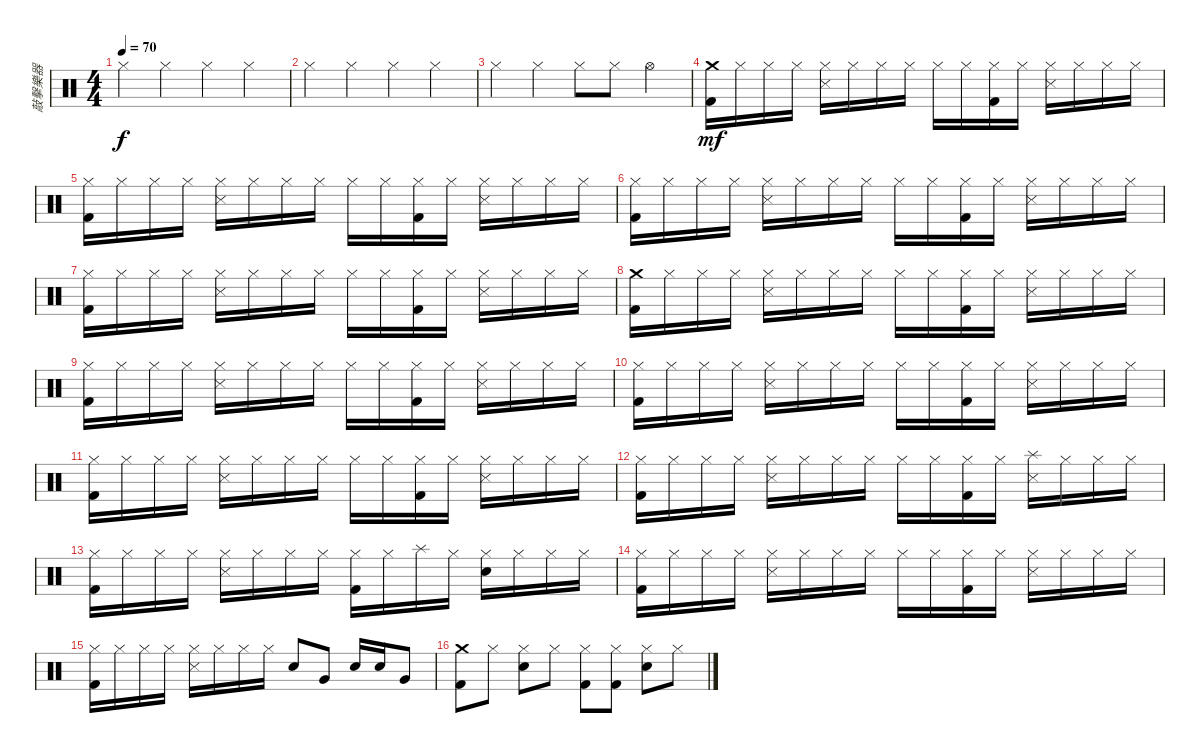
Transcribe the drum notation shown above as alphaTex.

\track ("敲擊樂器" "敲擊樂器") {instrument percussion}
\staff {score}
\articulation defaults
\ts (4 4)
\tempo 70
\clef neutral
\ks c "Hi-Hat (closed)".4{dy f} "Hi-Hat (closed)".4 "Hi-Hat (closed)".4 "Hi-Hat (closed)".4
|
"Hi-Hat (closed)".4 "Hi-Hat (closed)".4 "Hi-Hat (closed)".4 "Hi-Hat (closed)".4 |
"Hi-Hat (closed)".4 "Hi-Hat (closed)".4 "Hi-Hat (closed)".8 "Hi-Hat (closed)".8 "Hi-Hat (open)".4 |
("Crash medium (hit)" "Kick (hit) 2").16{dy mf} "Hi-Hat (closed)".16 "Hi-Hat (closed)".16 "Hi-Hat (closed)".16 ("Hi-Hat (closed)" "Snare (side stick) 3").16 "Hi-Hat (closed)".16 "Hi-Hat (closed)".16 "Hi-Hat (closed)".16 "Hi-Hat (closed)".16 "Hi-Hat (closed)".16 ("Hi-Hat (closed)" "Kick (hit) 2").16 "Hi-Hat (closed)".16 ("Hi-Hat (closed)" "Snare (side stick) 3").16 "Hi-Hat (closed)".16 "Hi-Hat (closed)".16 "Hi-Hat (closed)".16 |
("Hi-Hat (closed)" "Kick (hit) 2").16 "Hi-Hat (closed)".16 "Hi-Hat (closed)".16 "Hi-Hat (closed)".16 ("Hi-Hat (closed)" "Snare (side stick) 3").16 "Hi-Hat (closed)".16 "Hi-Hat (closed)".16 "Hi-Hat (closed)".16 "Hi-Hat (closed)".16 "Hi-Hat (closed)".16 ("Hi-Hat (closed)" "Kick (hit) 2").16 "Hi-Hat (closed)".16 ("Hi-Hat (closed)" "Snare (side stick) 3").16 "Hi-Hat (closed)".16 "Hi-Hat (closed)".16 "Hi-Hat (closed)".16 |
("Hi-Hat (closed)" "Kick (hit) 2").16 "Hi-Hat (closed)".16 "Hi-Hat (closed)".16 "Hi-Hat (closed)".16 ("Hi-Hat (closed)" "Snare (side stick) 3").16 "Hi-Hat (closed)".16 "Hi-Hat (closed)".16 "Hi-Hat (closed)".16 "Hi-Hat (closed)".16 "Hi-Hat (closed)".16 ("Hi-Hat (closed)" "Kick (hit) 2").16 "Hi-Hat (closed)".16 ("Hi-Hat (closed)" "Snare (side stick) 3").16 "Hi-Hat (closed)".16 "Hi-Hat (closed)".16 "Hi-Hat (closed)".16 |
("Hi-Hat (closed)" "Kick (hit) 2").16 "Hi-Hat (closed)".16 "Hi-Hat (closed)".16 "Hi-Hat (closed)".16 ("Hi-Hat (closed)" "Snare (side stick) 3").16 "Hi-Hat (closed)".16 "Hi-Hat (closed)".16 "Hi-Hat (closed)".16 "Hi-Hat (closed)".16 "Hi-Hat (closed)".16 ("Hi-Hat (closed)" "Kick (hit) 2").16 "Hi-Hat (closed)".16 ("Hi-Hat (closed)" "Snare (side stick) 3").16 "Hi-Hat (closed)".16 "Hi-Hat (closed)".16 "Hi-Hat (closed)".16 |
("Crash medium (hit)" "Kick (hit) 2").16 "Hi-Hat (closed)".16 "Hi-Hat (closed)".16 "Hi-Hat (closed)".16 ("Hi-Hat (closed)" "Snare (side stick) 3").16 "Hi-Hat (closed)".16 "Hi-Hat (closed)".16 "Hi-Hat (closed)".16 "Hi-Hat (closed)".16 "Hi-Hat (closed)".16 ("Hi-Hat (closed)" "Kick (hit) 2").16 "Hi-Hat (closed)".16 ("Hi-Hat (closed)" "Snare (side stick) 3").16 "Hi-Hat (closed)".16 "Hi-Hat (closed)".16 "Hi-Hat (closed)".16 |
("Hi-Hat (closed)" "Kick (hit) 2").16 "Hi-Hat (closed)".16 "Hi-Hat (closed)".16 "Hi-Hat (closed)".16 ("Hi-Hat (closed)" "Snare (side stick) 3").16 "Hi-Hat (closed)".16 "Hi-Hat (closed)".16 "Hi-Hat (closed)".16 "Hi-Hat (closed)".16 "Hi-Hat (closed)".16 ("Hi-Hat (closed)" "Kick (hit) 2").16 "Hi-Hat (closed)".16 ("Hi-Hat (closed)" "Snare (side stick) 3").16 "Hi-Hat (closed)".16 "Hi-Hat (closed)".16 "Hi-Hat (closed)".16 |
("Hi-Hat (closed)" "Kick (hit) 2").16 "Hi-Hat (closed)".16 "Hi-Hat (closed)".16 "Hi-Hat (closed)".16 ("Hi-Hat (closed)" "Snare (side stick) 3").16 "Hi-Hat (closed)".16 "Hi-Hat (closed)".16 "Hi-Hat (closed)".16 "Hi-Hat (closed)".16 "Hi-Hat (closed)".16 ("Hi-Hat (closed)" "Kick (hit) 2").16 "Hi-Hat (closed)".16 ("Hi-Hat (closed)" "Snare (side stick) 3").16 "Hi-Hat (closed)".16 "Hi-Hat (closed)".16 "Hi-Hat (closed)".16 |
("Hi-Hat (closed)" "Kick (hit) 2").16 "Hi-Hat (closed)".16 "Hi-Hat (closed)".16 "Hi-Hat (closed)".16 ("Hi-Hat (closed)" "Snare (side stick) 3").16 "Hi-Hat (closed)".16 "Hi-Hat (closed)".16 "Hi-Hat (closed)".16 "Hi-Hat (closed)".16 "Hi-Hat (closed)".16 ("Hi-Hat (closed)" "Kick (hit) 2").16 "Hi-Hat (closed)".16 ("Hi-Hat (closed)" "Snare (side stick) 3").16 "Hi-Hat (closed)".16 "Hi-Hat (closed)".16 "Hi-Hat (closed)".16 |
("Hi-Hat (closed)" "Kick (hit) 2").16 "Hi-Hat (closed)".16 "Hi-Hat (closed)".16 "Hi-Hat (closed)".16 ("Hi-Hat (closed)" "Snare (side stick) 3").16 "Hi-Hat (closed)".16 "Hi-Hat (closed)".16 "Hi-Hat (closed)".16 "Hi-Hat (closed)".16 "Hi-Hat (closed)".16 ("Hi-Hat (closed)" "Kick (hit) 2").16 "Hi-Hat (closed)".16 ("Splash (hit)" "Snare (side stick) 3").16 "Hi-Hat (closed)".16 "Hi-Hat (closed)".16 "Hi-Hat (closed)".16 |
("Hi-Hat (closed)" "Kick (hit) 2").16 "Hi-Hat (closed)".16 "Hi-Hat (closed)".16 "Hi-Hat (closed)".16 ("Hi-Hat (closed)" "Snare (side stick) 3").16 "Hi-Hat (closed)".16 "Hi-Hat (closed)".16 "Hi-Hat (closed)".16 ("Hi-Hat (closed)" "Kick (hit) 2").16 "Hi-Hat (closed)".16 "Splash (hit)".16 "Hi-Hat (closed)".16 ("Hi-Hat (closed)" "Snare (hit) 2").16 "Hi-Hat (closed)".16 "Hi-Hat (closed)".16 "Hi-Hat (closed)".16 |
("Hi-Hat (closed)" "Kick (hit) 2").16 "Hi-Hat (closed)".16 "Hi-Hat (closed)".16 "Hi-Hat (closed)".16 ("Hi-Hat (closed)" "Snare (side stick) 3").16 "Hi-Hat (closed)".16 "Hi-Hat (closed)".16 "Hi-Hat (closed)".16 "Hi-Hat (closed)".16 "Hi-Hat (closed)".16 ("Hi-Hat (closed)" "Kick (hit) 2").16 "Hi-Hat (closed)".16 ("Hi-Hat (closed)" "Snare (side stick) 3").16 "Hi-Hat (closed)".16 "Hi-Hat (closed)".16 "Hi-Hat (closed)".16 |
("Hi-Hat (closed)" "Kick (hit) 2").16 "Hi-Hat (closed)".16 "Hi-Hat (closed)".16 "Hi-Hat (closed)".16 ("Hi-Hat (closed)" "Snare (side stick) 3").16 "Hi-Hat (closed)".16 "Hi-Hat (closed)".16 "Hi-Hat (closed)".16 "Snare (hit) 2".8 "Very Low Tom (hit)".8 "Snare (hit) 2".16 "Snare (hit) 2".16 "Very Low Tom (hit)".8 |
("Crash medium (hit)" "Kick (hit) 2").8 "Hi-Hat (closed)".8 ("Hi-Hat (closed)" "Snare (hit) 2").8 "Hi-Hat (closed)".8 ("Hi-Hat (closed)" "Kick (hit) 2").8 ("Hi-Hat (closed)" "Kick (hit) 2").8 ("Hi-Hat (closed)" "Snare (hit) 2").8 "Hi-Hat (closed)".8
